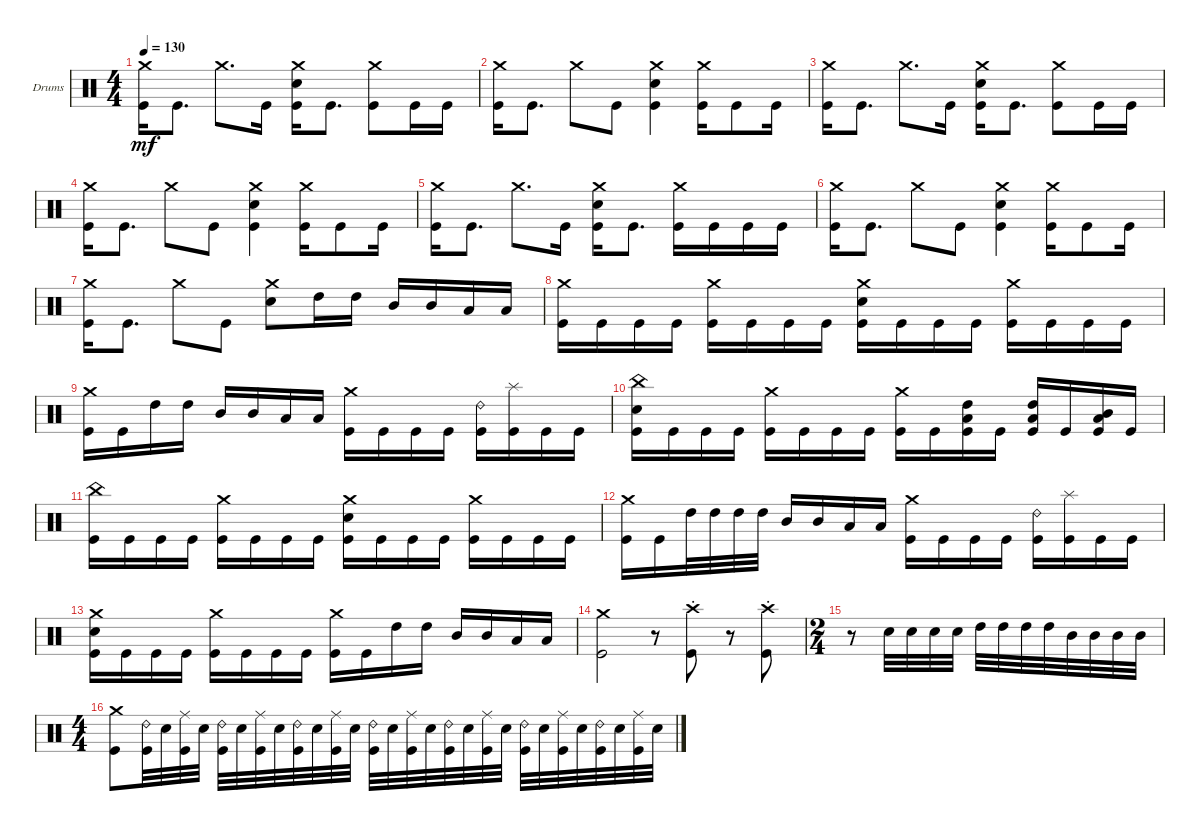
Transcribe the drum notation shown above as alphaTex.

\defaultSystemsLayout 4
\bracketExtendMode groupsimilarinstruments
\firstSystemTrackNameOrientation horizontal
\otherSystemsTrackNameOrientation horizontal
\track ("Drumkit" "Drums") {instrument percussion}
\staff {score}
\articulation defaults
\ts (4 4)
\tempo 130
\clef neutral
\ks c
("Crash medium (hit)" "Kick (hit)").16{dy mf} "Kick (hit)".8{d} "Crash medium (hit)".8{d} "Kick (hit)".16 ("Kick (hit)" "Crash medium (hit)" "Snare (hit) 2").16 "Kick (hit)".8{d} ("Kick (hit)" "Crash medium (hit)").8 "Kick (hit)".16 "Kick (hit)".16 |
("Kick (hit)" "Crash medium (hit)").16 "Kick (hit)".8{d} "Crash medium (hit)".8 "Kick (hit)".8 ("Kick (hit)" "Snare (hit) 2" "Crash medium (hit)").4 ("Kick (hit)" "Crash medium (hit)").16 "Kick (hit)".8 "Kick (hit)".16 |
("Kick (hit)" "Crash medium (hit)").16 "Kick (hit)".8{d} "Crash medium (hit)".8{d} "Kick (hit)".16 ("Kick (hit)" "Crash medium (hit)" "Snare (hit) 2").16 "Kick (hit)".8{d} ("Kick (hit)" "Crash medium (hit)").8 "Kick (hit)".16 "Kick (hit)".16 |
("Crash medium (hit)" "Kick (hit)").16 "Kick (hit)".8{d} "Crash medium (hit)".8 "Kick (hit)".8 ("Kick (hit)" "Crash medium (hit)" "Snare (hit) 2").4 ("Crash medium (hit)" "Kick (hit)").16 "Kick (hit)".8 "Kick (hit)".16 |
("Crash medium (hit)" "Kick (hit)").16 "Kick (hit)".8{d} "Crash medium (hit)".8{d} "Kick (hit)".16 ("Kick (hit)" "Crash medium (hit)" "Snare (hit) 2").16 "Kick (hit)".8{d} ("Kick (hit)" "Crash medium (hit)").16 "Kick (hit)".16 "Kick (hit)".16 "Kick (hit)".16 |
("Kick (hit)" "Crash medium (hit)").16 "Kick (hit)".8{d} "Crash medium (hit)".8 "Kick (hit)".8 ("Kick (hit)" "Snare (hit) 2" "Crash medium (hit)").4 ("Kick (hit)" "Crash medium (hit)").16 "Kick (hit)".8 "Kick (hit)".16 |
("Kick (hit)" "Crash medium (hit)").16 "Kick (hit)".8{d} "Crash medium (hit)".8 "Kick (hit)".8 ("Snare (hit) 2" "Crash medium (hit)").8 "High Tom (hit)".16 "High Tom (hit)".16 "Mid Tom (hit)".16 "Mid Tom (hit)".16 "Low Tom (hit)".16 "Low Tom (hit)".16 |
("Kick (hit)" "Crash medium (hit)").16 "Kick (hit)".16 "Kick (hit)".16 "Kick (hit)".16 ("Kick (hit)" "Crash medium (hit)").16 "Kick (hit)".16 "Kick (hit)".16 "Kick (hit)".16 ("Kick (hit)" "Crash medium (hit)" "Snare (hit) 2").16 "Kick (hit)".16 "Kick (hit)".16 "Kick (hit)".16 ("Kick (hit)" "Crash medium (hit)").16 "Kick (hit)".16 "Kick (hit)".16 "Kick (hit)".16 |
("Kick (hit)" "Crash medium (hit)").16 "Kick (hit)".16 "High Tom (hit)".16 "High Tom (hit)".16 "Mid Tom (hit)".16 "Mid Tom (hit)".16 "Low Tom (hit)".16 "Low Tom (hit)".16 ("Kick (hit)" "Crash medium (hit)").16 "Kick (hit)".16 "Kick (hit)".16 "Kick (hit)".16 ("Kick (hit)" "Ride (bell) 2").16 ("Kick (hit)" "Splash (hit)").16 "Kick (hit)".16 "Kick (hit)".16 |
("Snare (hit) 2" "China (hit)" "Kick (hit)").16 "Kick (hit)".16 "Kick (hit)".16 "Kick (hit)".16 ("Kick (hit)" "Crash medium (hit)").16 "Kick (hit)".16 "Kick (hit)".16 "Kick (hit)".16 ("Kick (hit)" "Crash medium (hit)").16 "Kick (hit)".16 ("Kick (hit)" "Low Tom (hit)" "High Tom (hit)").16 "Kick (hit)".16 ("Kick (hit)" "High Tom (hit)" "Low Tom (hit)").16 "Kick (hit)".16 ("Kick (hit)" "Mid Tom (hit)" "Low Tom (hit)").16 "Kick (hit)".16 |
("Kick (hit)" "China (hit)").16 "Kick (hit)".16 "Kick (hit)".16 "Kick (hit)".16 ("Kick (hit)" "Crash medium (hit)").16 "Kick (hit)".16 "Kick (hit)".16 "Kick (hit)".16 ("Kick (hit)" "Crash medium (hit)" "Snare (hit) 2").16 "Kick (hit)".16 "Kick (hit)".16 "Kick (hit)".16 ("Kick (hit)" "Crash medium (hit)").16 "Kick (hit)".16 "Kick (hit)".16 "Kick (hit)".16 |
("Kick (hit)" "Crash medium (hit)").16 "Kick (hit)".16 "High Tom (hit)".32 "High Tom (hit)".32 "High Tom (hit)".32 "High Tom (hit)".32 "Mid Tom (hit)".16 "Mid Tom (hit)".16 "Low Tom (hit)".16 "Low Tom (hit)".16 ("Kick (hit)" "Crash medium (hit)").16 "Kick (hit)".16 "Kick (hit)".16 "Kick (hit)".16 ("Kick (hit)" "Ride (bell) 2").16 ("Kick (hit)" "Splash (hit)").16 "Kick (hit)".16 "Kick (hit)".16 |
("Snare (hit) 2" "Kick (hit)" "Crash medium (hit)").16 "Kick (hit)".16 "Kick (hit)".16 "Kick (hit)".16 ("Kick (hit)" "Crash medium (hit)").16 "Kick (hit)".16 "Kick (hit)".16 "Kick (hit)".16 ("Kick (hit)" "Crash medium (hit)").16 "Kick (hit)".16 "High Tom (hit)".16 "High Tom (hit)".16 "Mid Tom (hit)".16 "Mid Tom (hit)".16 "Low Tom (hit)".16 "Low Tom (hit)".16 |
("Kick (hit)" "Crash medium (hit)").2 r.8 ("Crash high (hit)"{st} "Kick (hit)").8 r.8 ("Kick (hit)" "Crash high (hit)"{st}).8 |
\ts (2 4)
r.8 "Snare (hit) 2".32 "Snare (hit) 2".32 "Snare (hit) 2".32 "Snare (hit) 2".32 "High Tom (hit)".32 "High Tom (hit)".32 "High Tom (hit)".32 "High Tom (hit)".32 "Mid Tom (hit)".32 "Mid Tom (hit)".32 "Mid Tom (hit)".32 "Mid Tom (hit)".32 |
\ts (4 4)
("Kick (hit)" "Crash medium (hit)").8 ("Kick (hit)" "Ride (bell) 2").32 "Snare (hit) 2".32 ("Kick (hit)" "Ride (middle)").32 "Snare (hit) 2".32 ("Kick (hit)" "Ride (bell) 2").32 "Snare (hit) 2".32 ("Kick (hit)" "Ride (middle)").32 "Snare (hit) 2".32 ("Kick (hit)" "Ride (bell) 2").32 "Snare (hit) 2".32 ("Kick (hit)" "Ride (middle)").32 "Snare (hit) 2".32 ("Kick (hit)" "Ride (bell) 2").32 "Snare (hit) 2".32 ("Kick (hit)" "Ride (middle)").32 "Snare (hit) 2".32 ("Kick (hit)" "Ride (bell) 2").32 "Snare (hit) 2".32 ("Kick (hit)" "Ride (middle)").32 "Snare (hit) 2".32 ("Kick (hit)" "Ride (bell) 2").32 "Snare (hit) 2".32 ("Kick (hit)" "Ride (middle)").32 "Snare (hit) 2".32 ("Kick (hit)" "Ride (bell) 2").32 "Snare (hit) 2".32 ("Kick (hit)" "Ride (middle)").32 "Snare (hit) 2".32
